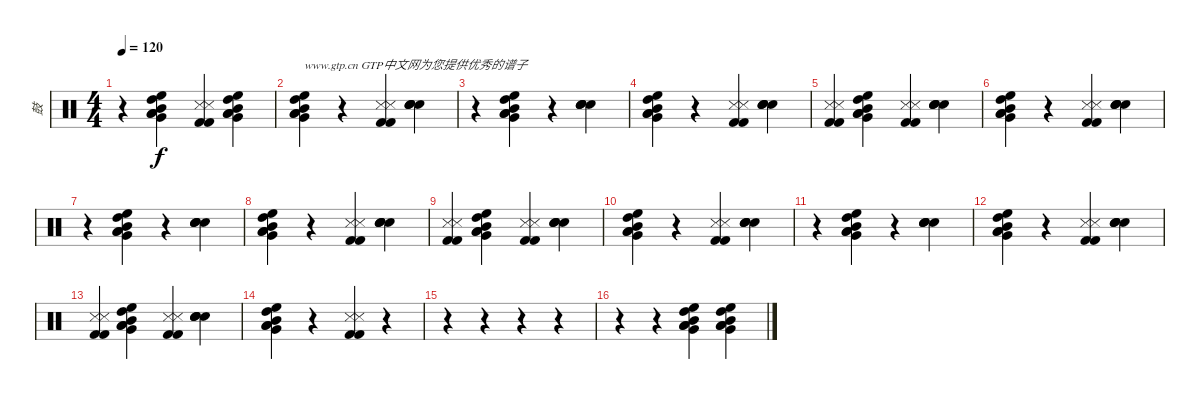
\track ("鼓" "鼓") {instrument percussion}
\staff {score}
\articulation defaults
\ts (4 4)
\tempo 120
\clef neutral
\ks c
r.4{dy f} ("High Floor Tom (hit)" "High Tom (hit)" "Mid Tom (hit)" "Low Tom (hit)" "Very Low Tom (hit)" "Low Floor Tom (hit)").4 ("Snare (side stick) 3" "Kick (hit) 2" "Kick (hit) 2" "Snare (side stick) 3").4 ("High Floor Tom (hit)" "High Tom (hit)" "Mid Tom (hit)" "Low Tom (hit)" "Very Low Tom (hit)" "Low Floor Tom (hit)").4 |
("High Floor Tom (hit)" "High Tom (hit)" "Mid Tom (hit)" "Low Tom (hit)" "Very Low Tom (hit)" "Low Floor Tom (hit)").4{txt "www.gtp.cn GTP中文网为您提供优秀的谱子"} r.4 ("Snare (side stick) 3" "Kick (hit) 2" "Kick (hit) 2" "Snare (side stick) 3").4 ("Hand Clap (hit)" "Hand Clap (hit)" "Hand Clap (hit)" "Hand Clap (hit)").4 |
r.4 ("High Floor Tom (hit)" "High Tom (hit)" "Mid Tom (hit)" "Low Tom (hit)" "Very Low Tom (hit)" "Low Floor Tom (hit)").4 r.4 ("Hand Clap (hit)" "Hand Clap (hit)" "Hand Clap (hit)" "Hand Clap (hit)").4 |
("High Floor Tom (hit)" "High Tom (hit)" "Mid Tom (hit)" "Low Tom (hit)" "Very Low Tom (hit)" "Low Floor Tom (hit)").4 r.4 ("Snare (side stick) 3" "Kick (hit) 2" "Kick (hit) 2" "Snare (side stick) 3").4 ("Hand Clap (hit)" "Hand Clap (hit)" "Hand Clap (hit)" "Hand Clap (hit)").4 |
("Snare (side stick) 3" "Kick (hit) 2" "Kick (hit) 2" "Snare (side stick) 3").4 ("High Floor Tom (hit)" "High Tom (hit)" "Mid Tom (hit)" "Low Tom (hit)" "Very Low Tom (hit)" "Low Floor Tom (hit)").4 ("Snare (side stick) 3" "Kick (hit) 2" "Kick (hit) 2" "Snare (side stick) 3").4 ("Hand Clap (hit)" "Hand Clap (hit)" "Hand Clap (hit)" "Hand Clap (hit)").4 |
("High Floor Tom (hit)" "High Tom (hit)" "Mid Tom (hit)" "Low Tom (hit)" "Very Low Tom (hit)" "Low Floor Tom (hit)").4 r.4 ("Snare (side stick) 3" "Kick (hit) 2" "Kick (hit) 2" "Snare (side stick) 3").4 ("Hand Clap (hit)" "Hand Clap (hit)" "Hand Clap (hit)" "Hand Clap (hit)").4 |
r.4 ("High Floor Tom (hit)" "High Tom (hit)" "Mid Tom (hit)" "Low Tom (hit)" "Very Low Tom (hit)" "Low Floor Tom (hit)").4 r.4 ("Hand Clap (hit)" "Hand Clap (hit)" "Hand Clap (hit)" "Hand Clap (hit)").4 |
("High Floor Tom (hit)" "High Tom (hit)" "Mid Tom (hit)" "Low Tom (hit)" "Very Low Tom (hit)" "Low Floor Tom (hit)").4 r.4 ("Snare (side stick) 3" "Kick (hit) 2" "Kick (hit) 2" "Snare (side stick) 3").4 ("Hand Clap (hit)" "Hand Clap (hit)" "Hand Clap (hit)" "Hand Clap (hit)").4 |
("Snare (side stick) 3" "Kick (hit) 2" "Kick (hit) 2" "Snare (side stick) 3").4 ("High Floor Tom (hit)" "High Tom (hit)" "Mid Tom (hit)" "Low Tom (hit)" "Very Low Tom (hit)" "Low Floor Tom (hit)").4 ("Snare (side stick) 3" "Kick (hit) 2" "Kick (hit) 2" "Snare (side stick) 3").4 ("Hand Clap (hit)" "Hand Clap (hit)" "Hand Clap (hit)" "Hand Clap (hit)").4 |
("High Floor Tom (hit)" "High Tom (hit)" "Mid Tom (hit)" "Low Tom (hit)" "Very Low Tom (hit)" "Low Floor Tom (hit)").4 r.4 ("Snare (side stick) 3" "Kick (hit) 2" "Kick (hit) 2" "Snare (side stick) 3").4 ("Hand Clap (hit)" "Hand Clap (hit)" "Hand Clap (hit)" "Hand Clap (hit)").4 |
r.4 ("High Floor Tom (hit)" "High Tom (hit)" "Mid Tom (hit)" "Low Tom (hit)" "Very Low Tom (hit)" "Low Floor Tom (hit)").4 r.4 ("Hand Clap (hit)" "Hand Clap (hit)" "Hand Clap (hit)" "Hand Clap (hit)").4 |
("High Floor Tom (hit)" "High Tom (hit)" "Mid Tom (hit)" "Low Tom (hit)" "Very Low Tom (hit)" "Low Floor Tom (hit)").4 r.4 ("Snare (side stick) 3" "Kick (hit) 2" "Kick (hit) 2" "Snare (side stick) 3").4 ("Hand Clap (hit)" "Hand Clap (hit)" "Hand Clap (hit)" "Hand Clap (hit)").4 |
("Snare (side stick) 3" "Kick (hit) 2" "Kick (hit) 2" "Snare (side stick) 3").4 ("High Floor Tom (hit)" "High Tom (hit)" "Mid Tom (hit)" "Low Tom (hit)" "Very Low Tom (hit)" "Low Floor Tom (hit)").4 ("Snare (side stick) 3" "Kick (hit) 2" "Kick (hit) 2" "Snare (side stick) 3").4 ("Hand Clap (hit)" "Hand Clap (hit)" "Hand Clap (hit)" "Hand Clap (hit)").4 |
("High Floor Tom (hit)" "High Tom (hit)" "Mid Tom (hit)" "Low Tom (hit)" "Very Low Tom (hit)" "Low Floor Tom (hit)").4 r.4 ("Snare (side stick) 3" "Kick (hit) 2" "Kick (hit) 2" "Snare (side stick) 3").4 r.4 |
r.4 r.4 r.4 r.4 |
r.4 r.4 ("High Floor Tom (hit)" "High Tom (hit)" "Mid Tom (hit)" "Low Tom (hit)" "Very Low Tom (hit)" "Low Floor Tom (hit)").4 ("High Floor Tom (hit)" "High Tom (hit)" "Mid Tom (hit)" "Low Tom (hit)" "Very Low Tom (hit)" "Low Floor Tom (hit)").4
